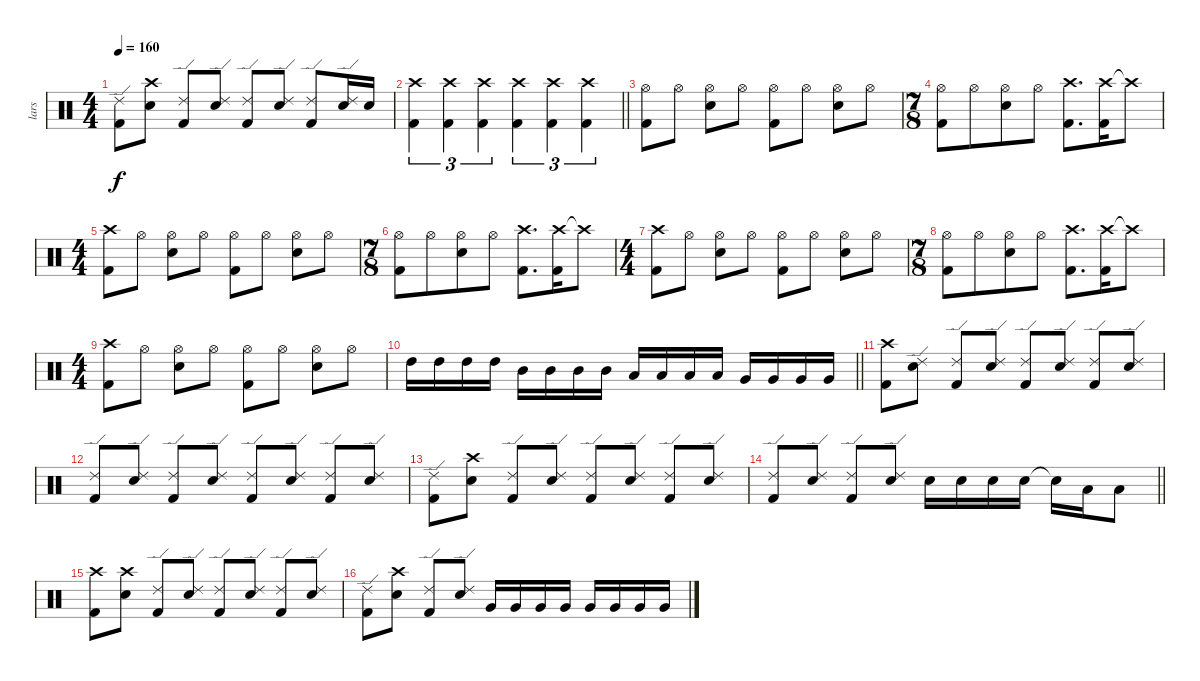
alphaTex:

\track ("lars" "lars") {instrument percussion}
\staff {score}
\articulation defaults
\ts (4 4)
\tempo 160
\clef neutral
\ks c
("Ride (edge) 2" "Kick (hit) 2").8{dy f} ("Crash high (hit)" "Electric Snare (hit)").8 ("Ride (edge) 2" "Kick (hit) 2").8 ("Ride (edge) 2" "Electric Snare (hit)").8 ("Ride (edge) 2" "Kick (hit) 2").8 ("Ride (edge) 2" "Electric Snare (hit)").8 ("Ride (edge) 2" "Kick (hit) 2").8 ("Ride (edge) 2" "Electric Snare (hit)").16 "Electric Snare (hit)".16 |
\barLineRight lightlight
("Crash high (hit)" "Kick (hit) 2").4{tu (3 2)} ("Crash high (hit)" "Kick (hit) 2").4{tu (3 2)} ("Crash high (hit)" "Kick (hit) 2").4{tu (3 2)} ("Crash high (hit)" "Kick (hit) 2").4{tu (3 2)} ("Crash high (hit)" "Kick (hit) 2").4{tu (3 2)} ("Crash high (hit)" "Kick (hit) 2").4{tu (3 2)} |
("Hi-Hat (open)" "Kick (hit) 2").8 "Hi-Hat (open)".8 ("Hi-Hat (open)" "Electric Snare (hit)").8 "Hi-Hat (open)".8 ("Hi-Hat (open)" "Kick (hit) 2").8 "Hi-Hat (open)".8 ("Hi-Hat (open)" "Electric Snare (hit)").8 "Hi-Hat (open)".8 |
\ts (7 8)
("Hi-Hat (open)" "Kick (hit) 2").8 "Hi-Hat (open)".8 ("Hi-Hat (open)" "Electric Snare (hit)").8 "Hi-Hat (open)".8 ("Crash high (hit)" "Kick (hit) 2").8{d} ("Crash high (hit)" "Kick (hit) 2").16 "Crash high (hit)"{t}.8 |
\ts (4 4)
("Crash high (hit)" "Kick (hit) 2").8 "Hi-Hat (open)".8 ("Hi-Hat (open)" "Electric Snare (hit)").8 "Hi-Hat (open)".8 ("Hi-Hat (open)" "Kick (hit) 2").8 "Hi-Hat (open)".8 ("Hi-Hat (open)" "Electric Snare (hit)").8 "Hi-Hat (open)".8 |
\ts (7 8)
("Hi-Hat (open)" "Kick (hit) 2").8 "Hi-Hat (open)".8 ("Hi-Hat (open)" "Electric Snare (hit)").8 "Hi-Hat (open)".8 ("Crash high (hit)" "Kick (hit) 2").8{d} ("Crash high (hit)" "Kick (hit) 2").16 "Crash high (hit)"{t}.8 |
\ts (4 4)
("Crash high (hit)" "Kick (hit) 2").8 "Hi-Hat (open)".8 ("Hi-Hat (open)" "Electric Snare (hit)").8 "Hi-Hat (open)".8 ("Hi-Hat (open)" "Kick (hit) 2").8 "Hi-Hat (open)".8 ("Hi-Hat (open)" "Electric Snare (hit)").8 "Hi-Hat (open)".8 |
\ts (7 8)
("Hi-Hat (open)" "Kick (hit) 2").8 "Hi-Hat (open)".8 ("Hi-Hat (open)" "Electric Snare (hit)").8 "Hi-Hat (open)".8 ("Crash high (hit)" "Kick (hit) 2").8{d} ("Crash high (hit)" "Kick (hit) 2").16 "Crash high (hit)"{t}.8 |
\ts (4 4)
("Crash high (hit)" "Kick (hit) 2").8 "Hi-Hat (open)".8 ("Hi-Hat (open)" "Electric Snare (hit)").8 "Hi-Hat (open)".8 ("Hi-Hat (open)" "Kick (hit) 2").8 "Hi-Hat (open)".8 ("Hi-Hat (open)" "Electric Snare (hit)").8 "Hi-Hat (open)".8{balance 0} |
\barLineRight lightlight "High Tom (hit)".16{balance 16} "High Tom (hit)".16 "High Tom (hit)".16 "High Tom (hit)".16 "Mid Tom (hit)".16 "Mid Tom (hit)".16 "Mid Tom (hit)".16 "Mid Tom (hit)".16 "Low Tom (hit)".16 "Low Tom (hit)".16 "Low Tom (hit)".16 "Low Tom (hit)".16 "Very Low Tom (hit)".16 "Very Low Tom (hit)".16 "Very Low Tom (hit)".16 "Very Low Tom (hit)".16
|
("Crash high (hit)" "Kick (hit) 2").8{balance 8} ("Ride (edge) 2" "Electric Snare (hit)").8 ("Ride (edge) 2" "Kick (hit) 2").8 ("Ride (edge) 2" "Electric Snare (hit)").8 ("Ride (edge) 2" "Kick (hit) 2").8 ("Ride (edge) 2" "Electric Snare (hit)").8 ("Ride (edge) 2" "Kick (hit) 2").8 ("Ride (edge) 2" "Electric Snare (hit)").8 |
("Ride (edge) 2" "Kick (hit) 2").8 ("Ride (edge) 2" "Electric Snare (hit)").8 ("Ride (edge) 2" "Kick (hit) 2").8 ("Ride (edge) 2" "Electric Snare (hit)").8 ("Ride (edge) 2" "Kick (hit) 2").8 ("Ride (edge) 2" "Electric Snare (hit)").8 ("Ride (edge) 2" "Kick (hit) 2").8 ("Ride (edge) 2" "Electric Snare (hit)").8 |
("Ride (edge) 2" "Kick (hit) 2").8 ("Crash high (hit)" "Electric Snare (hit)").8 ("Ride (edge) 2" "Kick (hit) 2").8 ("Ride (edge) 2" "Electric Snare (hit)").8 ("Ride (edge) 2" "Kick (hit) 2").8 ("Ride (edge) 2" "Electric Snare (hit)").8 ("Ride (edge) 2" "Kick (hit) 2").8 ("Ride (edge) 2" "Electric Snare (hit)").8 |
\barLineRight lightlight
("Ride (edge) 2" "Kick (hit) 2").8 ("Ride (edge) 2" "Electric Snare (hit)").8 ("Ride (edge) 2" "Kick (hit) 2").8 ("Ride (edge) 2" "Electric Snare (hit)").8 "Electric Snare (hit)".16 "Electric Snare (hit)".16 "Electric Snare (hit)".16 "Electric Snare (hit)".16 "Snare (hit)"{t}.16 "Low Tom (hit)".16 "Low Tom (hit)".8 |
("Crash high (hit)" "Kick (hit) 2").8 ("Crash high (hit)" "Electric Snare (hit)").8 ("Ride (edge) 2" "Kick (hit) 2").8 ("Ride (edge) 2" "Electric Snare (hit)").8 ("Ride (edge) 2" "Kick (hit) 2").8 ("Ride (edge) 2" "Electric Snare (hit)").8 ("Ride (edge) 2" "Kick (hit) 2").8 ("Ride (edge) 2" "Electric Snare (hit)").8 |
("Ride (edge) 2" "Kick (hit) 2").8 ("Crash high (hit)" "Electric Snare (hit)").8 ("Ride (edge) 2" "Kick (hit) 2").8 ("Ride (edge) 2" "Electric Snare (hit)").8 "Very Low Tom (hit)".16 "Very Low Tom (hit)".16 "Very Low Tom (hit)".16 "Very Low Tom (hit)".16 "Very Low Tom (hit)".16 "Very Low Tom (hit)".16 "Very Low Tom (hit)".16 "Very Low Tom (hit)".16
